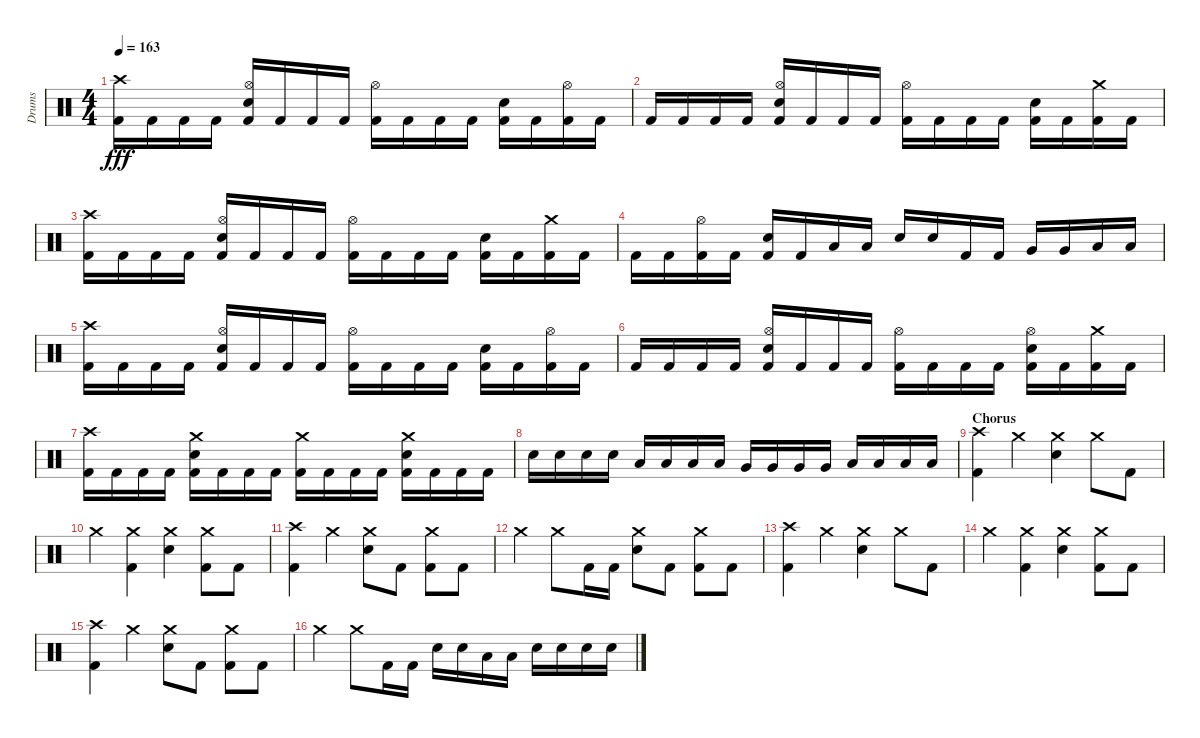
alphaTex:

\track ("Drums" "Drums") {instrument percussion}
\staff {score}
\articulation defaults
\ts (4 4)
\tempo 163
\clef neutral
\ks aminor
("Kick (hit) 2" "Crash high (hit)").16{dy fff} "Kick (hit) 2".16 "Kick (hit) 2".16 "Kick (hit) 2".16 ("Hi-Hat (open)" "Snare (hit) 2" "Kick (hit) 2").16 "Kick (hit) 2".16 "Kick (hit) 2".16 "Kick (hit) 2".16 ("Hi-Hat (open)" "Kick (hit) 2").16 "Kick (hit) 2".16 "Kick (hit) 2".16 "Kick (hit) 2".16 ("Kick (hit) 2" "Snare (hit) 2").16 "Kick (hit) 2".16 ("Kick (hit) 2" "Hi-Hat (open)").16 "Kick (hit) 2".16 |
"Kick (hit) 2".16 "Kick (hit) 2".16 "Kick (hit) 2".16 "Kick (hit) 2".16 ("Kick (hit) 2" "Hi-Hat (open)" "Snare (hit) 2").16 "Kick (hit) 2".16 "Kick (hit) 2".16 "Kick (hit) 2".16 ("Hi-Hat (open)" "Kick (hit) 2").16 "Kick (hit) 2".16 "Kick (hit) 2".16 "Kick (hit) 2".16 ("Kick (hit) 2" "Snare (hit) 2").16 "Kick (hit) 2".16 ("Kick (hit) 2" "Crash medium (hit)").16 "Kick (hit) 2".16 |
("Crash high (hit)" "Kick (hit) 2").16 "Kick (hit) 2".16 "Kick (hit) 2".16 "Kick (hit) 2".16 ("Hi-Hat (open)" "Kick (hit) 2" "Snare (hit) 2").16 "Kick (hit) 2".16 "Kick (hit) 2".16 "Kick (hit) 2".16 ("Kick (hit) 2" "Hi-Hat (open)").16 "Kick (hit) 2".16 "Kick (hit) 2".16 "Kick (hit) 2".16 ("Snare (hit) 2" "Kick (hit) 2").16 "Kick (hit) 2".16 ("Kick (hit) 2" "Crash medium (hit)").16 "Kick (hit) 2".16 |
"Kick (hit) 2".16 "Kick (hit) 2".16 ("Hi-Hat (open)" "Kick (hit) 2").16 "Kick (hit) 2".16 ("Kick (hit) 2" "Snare (hit) 2").16 "Kick (hit) 2".16 "Low Floor Tom (hit)".16 "Low Floor Tom (hit)".16 "Snare (hit) 2".16 "Snare (hit) 2".16 "Kick (hit) 2".16 "Kick (hit) 2".16 "Very Low Tom (hit)".16 "Very Low Tom (hit)".16 "Low Floor Tom (hit)".16 "Low Floor Tom (hit)".16 |
("Crash high (hit)" "Kick (hit) 2").16 "Kick (hit) 2".16 "Kick (hit) 2".16 "Kick (hit) 2".16 ("Snare (hit) 2" "Hi-Hat (open)" "Kick (hit) 2").16 "Kick (hit) 2".16 "Kick (hit) 2".16 "Kick (hit) 2".16 ("Kick (hit) 2" "Hi-Hat (open)").16 "Kick (hit) 2".16 "Kick (hit) 2".16 "Kick (hit) 2".16 ("Snare (hit) 2" "Kick (hit) 2").16 "Kick (hit) 2".16 ("Hi-Hat (open)" "Kick (hit) 2").16 "Kick (hit) 2".16 |
"Kick (hit) 2".16 "Kick (hit) 2".16 "Kick (hit) 2".16 "Kick (hit) 2".16 ("Snare (hit) 2" "Kick (hit) 2" "Hi-Hat (open)").16 "Kick (hit) 2".16 "Kick (hit) 2".16 "Kick (hit) 2".16 ("Kick (hit) 2" "Hi-Hat (open)").16 "Kick (hit) 2".16 "Kick (hit) 2".16 "Kick (hit) 2".16 ("Kick (hit) 2" "Snare (hit) 2" "Hi-Hat (open)").16 "Kick (hit) 2".16 ("Kick (hit) 2" "Crash medium (hit)").16 "Kick (hit) 2".16 |
("Kick (hit) 2" "Crash high (hit)").16 "Kick (hit) 2".16 "Kick (hit) 2".16 "Kick (hit) 2".16 ("Kick (hit) 2" "Snare (hit) 2" "Crash medium (hit)").16 "Kick (hit) 2".16 "Kick (hit) 2".16 "Kick (hit) 2".16 ("Crash medium (hit)" "Kick (hit) 2").16 "Kick (hit) 2".16 "Kick (hit) 2".16 "Kick (hit) 2".16 ("Kick (hit) 2" "Snare (hit) 2" "Crash medium (hit)").16 "Kick (hit) 2".16 "Kick (hit) 2".16 "Kick (hit) 2".16 |
"Snare (hit) 2".16 "Snare (hit) 2".16 "Snare (hit) 2".16 "Snare (hit) 2".16 "Low Tom (hit)".16 "Low Tom (hit)".16 "Low Tom (hit)".16 "Low Tom (hit)".16 "Very Low Tom (hit)".16 "Very Low Tom (hit)".16 "Very Low Tom (hit)".16 "Very Low Tom (hit)".16 "Low Floor Tom (hit)".16 "Low Floor Tom (hit)".16 "Low Floor Tom (hit)".16 "Low Floor Tom (hit)".16 |
\section ("" "Chorus")
("Kick (hit) 2" "Crash high (hit)").4 "Crash medium (hit)".4 ("Snare (hit) 2" "Crash medium (hit)").4 "Crash medium (hit)".8 "Kick (hit) 2".8 |
"Crash medium (hit)".4 ("Kick (hit) 2" "Crash medium (hit)").4 ("Crash medium (hit)" "Snare (hit) 2").4 ("Crash medium (hit)" "Kick (hit) 2").8 "Kick (hit) 2".8 |
("Kick (hit) 2" "Crash high (hit)").4 "Crash medium (hit)".4 ("Snare (hit) 2" "Crash medium (hit)").8 "Kick (hit) 2".8 ("Kick (hit) 2" "Crash medium (hit)").8 "Kick (hit) 2".8 |
"Crash medium (hit)".4 "Crash medium (hit)".8 "Kick (hit) 2".16 "Kick (hit) 2".16 ("Snare (hit) 2" "Crash medium (hit)").8 "Kick (hit) 2".8 ("Crash medium (hit)" "Kick (hit) 2").8 "Kick (hit) 2".8 |
("Crash high (hit)" "Kick (hit) 2").4 "Crash medium (hit)".4 ("Crash medium (hit)" "Snare (hit) 2").4 "Crash medium (hit)".8 "Kick (hit) 2".8 |
"Crash medium (hit)".4 ("Crash medium (hit)" "Kick (hit) 2").4 ("Crash medium (hit)" "Snare (hit) 2").4 ("Kick (hit) 2" "Crash medium (hit)").8 "Kick (hit) 2".8 |
("Kick (hit) 2" "Crash high (hit)").4 "Crash medium (hit)".4 ("Crash medium (hit)" "Snare (hit) 2").8 "Kick (hit) 2".8 ("Kick (hit) 2" "Crash medium (hit)").8 "Kick (hit) 2".8 |
"Crash medium (hit)".4 "Crash medium (hit)".8 "Kick (hit) 2".16 "Kick (hit) 2".16 "Snare (hit) 2".16 "Snare (hit) 2".16 "Low Floor Tom (hit)".16 "Low Floor Tom (hit)".16 "Snare (hit) 2".16 "Snare (hit) 2".16 "Snare (hit) 2".16 "Snare (hit) 2".16
